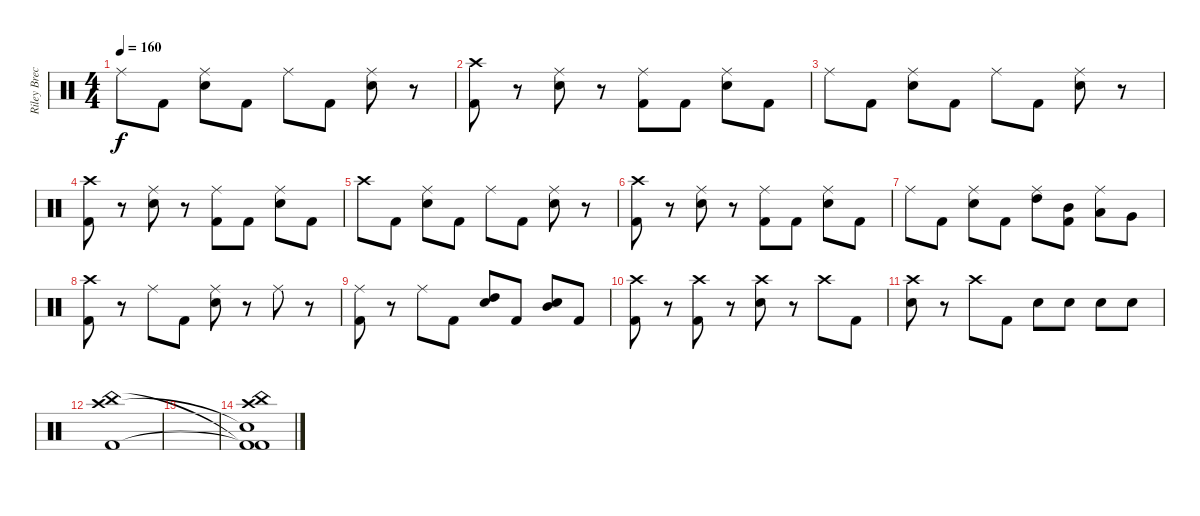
\track ("Riley Breckenridge" "Riley Brec") {instrument percussion}
\staff {score}
\articulation defaults
\ts (4 4)
\tempo 160
\clef neutral
\ks c "Ride (middle)".8{dy f} "Kick (hit) 2".8
("Electric Snare (hit)" "Ride (middle)").8 "Kick (hit) 2".8 "Ride (middle)".8 "Kick (hit) 2".8 ("Electric Snare (hit)" "Ride (middle)").8 r.8 |
("Kick (hit) 2" "Crash high (hit)").8 r.8 ("Electric Snare (hit)" "Ride (middle)").8 r.8 ("Kick (hit) 2" "Ride (middle)").8 "Kick (hit) 2".8 ("Electric Snare (hit)" "Ride (middle)").8 "Kick (hit) 2".8 |
"Ride (middle)".8 "Kick (hit) 2".8 ("Electric Snare (hit)" "Ride (middle)").8 "Kick (hit) 2".8 "Ride (middle)".8 "Kick (hit) 2".8 ("Electric Snare (hit)" "Ride (middle)").8 r.8 |
("Kick (hit) 2" "Crash high (hit)").8 r.8 ("Electric Snare (hit)" "Ride (middle)").8 r.8 ("Kick (hit) 2" "Ride (middle)").8 "Kick (hit) 2".8 ("Electric Snare (hit)" "Ride (middle)").8 "Kick (hit) 2".8 |
"Crash high (hit)".8 "Kick (hit) 2".8 ("Electric Snare (hit)" "Ride (middle)").8 "Kick (hit) 2".8 "Ride (middle)".8 "Kick (hit) 2".8 ("Electric Snare (hit)" "Ride (middle)").8 r.8 |
("Kick (hit) 2" "Crash high (hit)").8 r.8 ("Electric Snare (hit)" "Ride (middle)").8 r.8 ("Kick (hit) 2" "Ride (middle)").8 "Kick (hit) 2".8 ("Electric Snare (hit)" "Ride (middle)").8 "Kick (hit) 2".8 |
"Ride (middle)".8 "Kick (hit) 2".8 ("Electric Snare (hit)" "Ride (middle)").8 "Kick (hit) 2".8 ("High Tom (hit)" "Ride (middle)").8 ("Kick (hit) 2" "Mid Tom (hit)").8 ("Low Tom (hit)" "Ride (middle)").8 "Very Low Tom (hit)".8 |
("Kick (hit) 2" "Crash high (hit)").8 r.8 "Ride (middle)".8 "Kick (hit) 2".8 ("Electric Snare (hit)" "Ride (middle)").8 r.8 "Ride (middle)".8 r.8 |
("Kick (hit) 2" "Ride (middle)").8 r.8 "Ride (middle)".8 "Kick (hit) 2".8 ("Electric Snare (hit)" "High Tom (hit)").8 "Kick (hit) 2".8 ("Electric Snare (hit)" "Mid Tom (hit)").8 "Kick (hit) 2".8 |
("Kick (hit) 2" "Crash high (hit)").8 r.8 ("Kick (hit) 2" "Crash high (hit)").8 r.8 ("Electric Snare (hit)" "Crash high (hit)").8 r.8 "Crash high (hit)".8 "Kick (hit) 2".8 |
("Electric Snare (hit)" "Crash high (hit)").8 r.8 "Crash high (hit)".8 "Kick (hit) 2".8 "Electric Snare (hit)".8 "Electric Snare (hit)".8 "Electric Snare (hit)".8 "Electric Snare (hit)".8 |
("Kick (hit) 2" "China (hit)" "Crash high (hit)").1 |
|
("Kick (hit) 2"{t} "Kick (hit) 2"{t} "Snare (hit)"{t} "China (hit)" "Crash high (hit)").1
